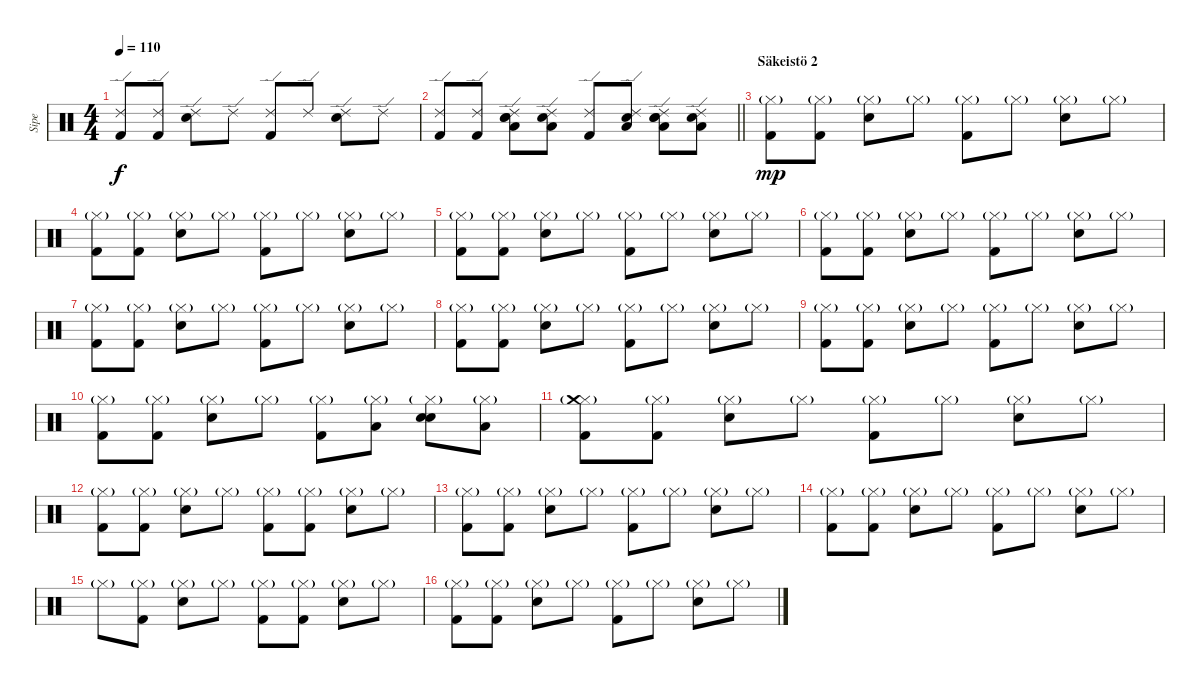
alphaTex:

\track ("Sipe" "Sipe") {instrument percussion}
\staff {score}
\articulation defaults
\ts (4 4)
\tempo 110
\clef neutral
\ks c
("Ride (edge) 2" "Kick (hit) 2").8{dy f} ("Ride (edge) 2" "Kick (hit) 2").8 ("Ride (edge) 2" "Snare (hit) 2").8 "Ride (edge) 2".8 ("Ride (edge) 2" "Kick (hit) 2").8 "Ride (edge) 2".8 ("Ride (edge) 2" "Snare (hit) 2").8 "Ride (edge) 2".8 |
\barLineRight lightlight
("Ride (edge) 2" "Kick (hit) 2").8 ("Ride (edge) 2" "Kick (hit) 2").8 ("Ride (edge) 2" "Snare (hit) 2" "Snare (hit) 2" "Low Tom (hit)").8 ("Ride (edge) 2" "Snare (hit) 2" "Low Tom (hit)").8 ("Ride (edge) 2" "Kick (hit) 2").8 ("Ride (edge) 2" "Snare (hit) 2" "Low Tom (hit)").8 ("Ride (edge) 2" "Snare (hit) 2" "Snare (hit) 2" "Low Tom (hit)").8 ("Ride (edge) 2" "Snare (hit) 2" "Low Tom (hit)").8 |
\section ("" "Säkeistö 2")
("Hi-Hat (closed)"{g} "Kick (hit) 2").8{dy mp} ("Hi-Hat (closed)"{g} "Kick (hit) 2").8 ("Hi-Hat (closed)"{g} "Snare (hit) 2").8 "Hi-Hat (closed)"{g}.8 ("Hi-Hat (closed)"{g} "Kick (hit) 2").8 "Hi-Hat (closed)"{g}.8 ("Hi-Hat (closed)"{g} "Snare (hit) 2").8 "Hi-Hat (closed)"{g}.8 |
("Hi-Hat (closed)"{g} "Kick (hit) 2").8 ("Hi-Hat (closed)"{g} "Kick (hit) 2").8 ("Hi-Hat (closed)"{g} "Snare (hit) 2").8 "Hi-Hat (closed)"{g}.8 ("Hi-Hat (closed)"{g} "Kick (hit) 2").8 "Hi-Hat (closed)"{g}.8 ("Hi-Hat (closed)"{g} "Snare (hit) 2").8 "Hi-Hat (closed)"{g}.8 |
("Hi-Hat (closed)"{g} "Kick (hit) 2").8 ("Hi-Hat (closed)"{g} "Kick (hit) 2").8 ("Hi-Hat (closed)"{g} "Snare (hit) 2").8 "Hi-Hat (closed)"{g}.8 ("Hi-Hat (closed)"{g} "Kick (hit) 2").8 "Hi-Hat (closed)"{g}.8 ("Hi-Hat (closed)"{g} "Snare (hit) 2").8 "Hi-Hat (closed)"{g}.8 |
("Hi-Hat (closed)"{g} "Kick (hit) 2").8 ("Hi-Hat (closed)"{g} "Kick (hit) 2").8 ("Hi-Hat (closed)"{g} "Snare (hit) 2").8 "Hi-Hat (closed)"{g}.8 ("Hi-Hat (closed)"{g} "Kick (hit) 2").8 "Hi-Hat (closed)"{g}.8 ("Hi-Hat (closed)"{g} "Snare (hit) 2").8 "Hi-Hat (closed)"{g}.8 |
("Hi-Hat (closed)"{g} "Kick (hit) 2").8 ("Hi-Hat (closed)"{g} "Kick (hit) 2").8 ("Hi-Hat (closed)"{g} "Snare (hit) 2").8 "Hi-Hat (closed)"{g}.8 ("Hi-Hat (closed)"{g} "Kick (hit) 2").8 "Hi-Hat (closed)"{g}.8 ("Hi-Hat (closed)"{g} "Snare (hit) 2").8 "Hi-Hat (closed)"{g}.8 |
("Hi-Hat (closed)"{g} "Kick (hit) 2").8 ("Hi-Hat (closed)"{g} "Kick (hit) 2").8 ("Hi-Hat (closed)"{g} "Snare (hit) 2").8 "Hi-Hat (closed)"{g}.8 ("Hi-Hat (closed)"{g} "Kick (hit) 2").8 "Hi-Hat (closed)"{g}.8 ("Hi-Hat (closed)"{g} "Snare (hit) 2").8 "Hi-Hat (closed)"{g}.8 |
("Hi-Hat (closed)"{g} "Kick (hit) 2").8 ("Hi-Hat (closed)"{g} "Kick (hit) 2").8 ("Hi-Hat (closed)"{g} "Snare (hit) 2").8 "Hi-Hat (closed)"{g}.8 ("Hi-Hat (closed)"{g} "Kick (hit) 2").8 "Hi-Hat (closed)"{g}.8 ("Hi-Hat (closed)"{g} "Snare (hit) 2").8 "Hi-Hat (closed)"{g}.8 |
("Hi-Hat (closed)"{g} "Kick (hit) 2").8 ("Hi-Hat (closed)"{g} "Kick (hit) 2").8 ("Hi-Hat (closed)"{g} "Snare (hit) 2").8 "Hi-Hat (closed)"{g}.8 ("Hi-Hat (closed)"{g} "Kick (hit) 2").8 ("Hi-Hat (closed)"{g} "Low Tom (hit)").8 ("Hi-Hat (closed)"{g} "Snare (hit) 2" "Snare (hit) 2").8 ("Hi-Hat (closed)"{g} "Low Tom (hit)").8 |
("Hi-Hat (closed)"{g} "Kick (hit) 2" "Crash medium (hit)"{g}).8 ("Hi-Hat (closed)"{g} "Kick (hit) 2").8 ("Hi-Hat (closed)"{g} "Snare (hit) 2").8 "Hi-Hat (closed)"{g}.8 ("Hi-Hat (closed)"{g} "Kick (hit) 2").8 "Hi-Hat (closed)"{g}.8 ("Hi-Hat (closed)"{g} "Snare (hit) 2").8 "Hi-Hat (closed)"{g}.8 |
("Hi-Hat (closed)"{g} "Kick (hit) 2").8 ("Hi-Hat (closed)"{g} "Kick (hit) 2").8 ("Hi-Hat (closed)"{g} "Snare (hit) 2").8 "Hi-Hat (closed)"{g}.8 ("Hi-Hat (closed)"{g} "Kick (hit) 2").8 ("Hi-Hat (closed)"{g} "Kick (hit) 2").8 ("Hi-Hat (closed)"{g} "Snare (hit) 2").8 "Hi-Hat (closed)"{g}.8 |
("Hi-Hat (closed)"{g} "Kick (hit) 2").8 ("Hi-Hat (closed)"{g} "Kick (hit) 2").8 ("Hi-Hat (closed)"{g} "Snare (hit) 2").8 "Hi-Hat (closed)"{g}.8 ("Hi-Hat (closed)"{g} "Kick (hit) 2").8 "Hi-Hat (closed)"{g}.8 ("Hi-Hat (closed)"{g} "Snare (hit) 2").8 "Hi-Hat (closed)"{g}.8 |
("Hi-Hat (closed)"{g} "Kick (hit) 2").8 ("Hi-Hat (closed)"{g} "Kick (hit) 2").8 ("Hi-Hat (closed)"{g} "Snare (hit) 2").8 "Hi-Hat (closed)"{g}.8 ("Hi-Hat (closed)"{g} "Kick (hit) 2").8 "Hi-Hat (closed)"{g}.8 ("Hi-Hat (closed)"{g} "Snare (hit) 2").8 "Hi-Hat (closed)"{g}.8 |
"Hi-Hat (closed)"{g}.8 ("Hi-Hat (closed)"{g} "Kick (hit) 2").8 ("Hi-Hat (closed)"{g} "Snare (hit) 2").8 "Hi-Hat (closed)"{g}.8 ("Hi-Hat (closed)"{g} "Kick (hit) 2").8 ("Hi-Hat (closed)"{g} "Kick (hit) 2").8 ("Hi-Hat (closed)"{g} "Snare (hit) 2").8 "Hi-Hat (closed)"{g}.8 |
("Hi-Hat (closed)"{g} "Kick (hit) 2").8 ("Hi-Hat (closed)"{g} "Kick (hit) 2").8 ("Hi-Hat (closed)"{g} "Snare (hit) 2").8 "Hi-Hat (closed)"{g}.8 ("Hi-Hat (closed)"{g} "Kick (hit) 2").8 "Hi-Hat (closed)"{g}.8 ("Hi-Hat (closed)"{g} "Snare (hit) 2").8 "Hi-Hat (closed)"{g}.8
